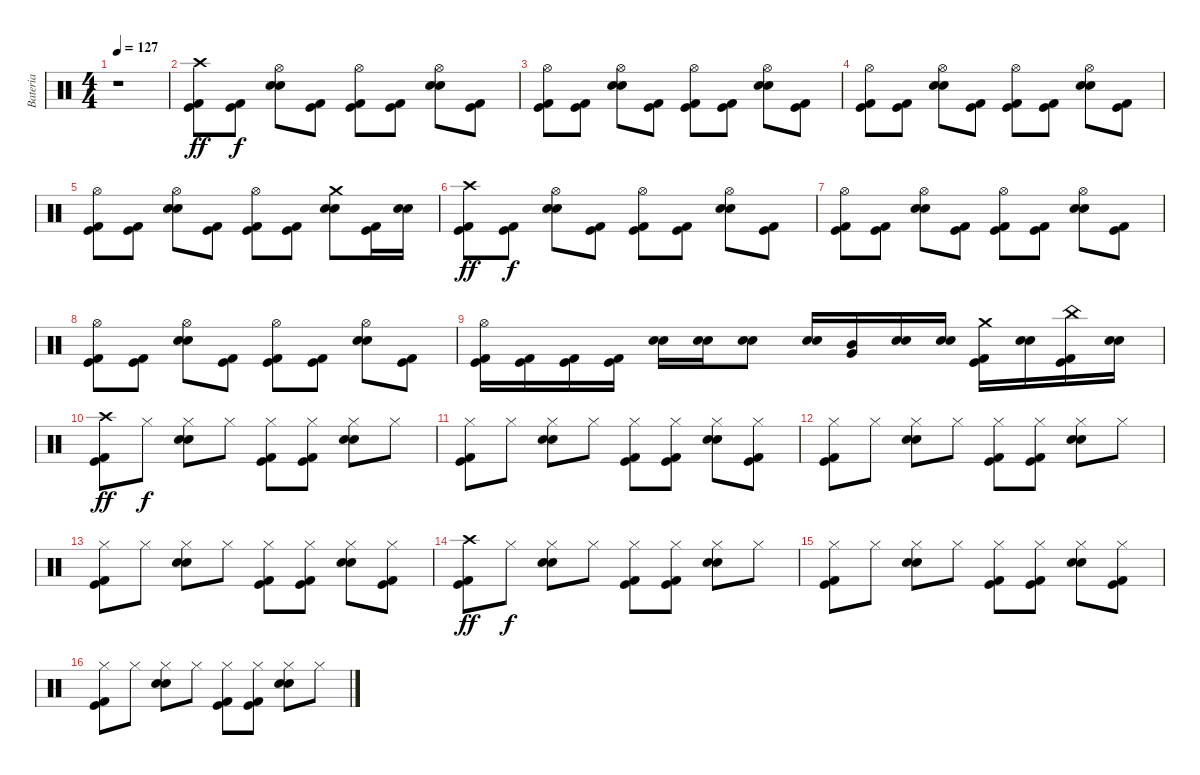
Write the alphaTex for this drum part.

\track ("Bateria" "Bateria") {instrument percussion}
\staff {score}
\articulation defaults
\ts (4 4)
\tempo 127
\clef neutral
\ks c
r.1{dy ff} |
("Crash high (hit)" "Kick (hit) 2" "Kick (hit)").8 ("Kick (hit) 2" "Kick (hit)").8{dy f} ("Hi-Hat (open)" "Electric Snare (hit)" "Snare (hit) 2").8 ("Kick (hit) 2" "Kick (hit)").8 ("Hi-Hat (open)" "Kick (hit) 2" "Kick (hit)").8 ("Kick (hit) 2" "Kick (hit)").8 ("Hi-Hat (open)" "Electric Snare (hit)" "Snare (hit) 2").8 ("Kick (hit) 2" "Kick (hit)").8 |
("Hi-Hat (open)" "Kick (hit) 2" "Kick (hit)").8 ("Kick (hit) 2" "Kick (hit)").8 ("Hi-Hat (open)" "Electric Snare (hit)" "Snare (hit) 2").8 ("Kick (hit) 2" "Kick (hit)").8 ("Hi-Hat (open)" "Kick (hit) 2" "Kick (hit)").8 ("Kick (hit) 2" "Kick (hit)").8 ("Hi-Hat (open)" "Electric Snare (hit)" "Snare (hit) 2").8 ("Kick (hit) 2" "Kick (hit)").8 |
("Hi-Hat (open)" "Kick (hit) 2" "Kick (hit)").8 ("Kick (hit) 2" "Kick (hit)").8 ("Hi-Hat (open)" "Electric Snare (hit)" "Snare (hit) 2").8 ("Kick (hit) 2" "Kick (hit)").8 ("Hi-Hat (open)" "Kick (hit) 2" "Kick (hit)").8 ("Kick (hit) 2" "Kick (hit)").8 ("Hi-Hat (open)" "Electric Snare (hit)" "Snare (hit) 2").8 ("Kick (hit) 2" "Kick (hit)").8 |
("Hi-Hat (open)" "Kick (hit) 2" "Kick (hit)").8 ("Kick (hit) 2" "Kick (hit)").8 ("Hi-Hat (open)" "Electric Snare (hit)" "Snare (hit) 2").8 ("Kick (hit) 2" "Kick (hit)").8 ("Hi-Hat (open)" "Kick (hit) 2" "Kick (hit)").8 ("Kick (hit) 2" "Kick (hit)").8 ("Crash medium (hit)" "Electric Snare (hit)" "Snare (hit) 2").8 ("Kick (hit) 2" "Kick (hit)").16 ("Electric Snare (hit)" "Snare (hit) 2").16 |
("Crash high (hit)" "Kick (hit) 2" "Kick (hit)").8{dy ff} ("Kick (hit) 2" "Kick (hit)").8{dy f} ("Hi-Hat (open)" "Electric Snare (hit)" "Snare (hit) 2").8 ("Kick (hit) 2" "Kick (hit)").8 ("Hi-Hat (open)" "Kick (hit) 2" "Kick (hit)").8 ("Kick (hit) 2" "Kick (hit)").8 ("Hi-Hat (open)" "Electric Snare (hit)" "Snare (hit) 2").8 ("Kick (hit) 2" "Kick (hit)").8 |
("Hi-Hat (open)" "Kick (hit) 2" "Kick (hit)").8 ("Kick (hit) 2" "Kick (hit)").8 ("Hi-Hat (open)" "Electric Snare (hit)" "Snare (hit) 2").8 ("Kick (hit) 2" "Kick (hit)").8 ("Hi-Hat (open)" "Kick (hit) 2" "Kick (hit)").8 ("Kick (hit) 2" "Kick (hit)").8 ("Hi-Hat (open)" "Electric Snare (hit)" "Snare (hit) 2").8 ("Kick (hit) 2" "Kick (hit)").8 |
("Hi-Hat (open)" "Kick (hit) 2" "Kick (hit)").8 ("Kick (hit) 2" "Kick (hit)").8 ("Hi-Hat (open)" "Electric Snare (hit)" "Snare (hit) 2").8 ("Kick (hit) 2" "Kick (hit)").8 ("Hi-Hat (open)" "Kick (hit) 2" "Kick (hit)").8 ("Kick (hit) 2" "Kick (hit)").8 ("Hi-Hat (open)" "Electric Snare (hit)" "Snare (hit) 2").8 ("Kick (hit) 2" "Kick (hit)").8 |
("Hi-Hat (open)" "Kick (hit) 2" "Kick (hit)").16 ("Kick (hit) 2" "Kick (hit)").16 ("Kick (hit) 2" "Kick (hit)").16 ("Kick (hit) 2" "Kick (hit)").16 ("Electric Snare (hit)" "Snare (hit) 2").16 ("Electric Snare (hit)" "Snare (hit) 2").16 ("Electric Snare (hit)" "Snare (hit) 2").8 ("Electric Snare (hit)" "Snare (hit) 2").16 ("Mid Tom (hit)" "Very Low Tom (hit)").16 ("Electric Snare (hit)" "Snare (hit) 2").16 ("Electric Snare (hit)" "Snare (hit) 2").16 ("Crash medium (hit)" "Kick (hit) 2" "Kick (hit)").16 ("Electric Snare (hit)" "Snare (hit) 2").16 ("China (hit)" "Kick (hit) 2" "Kick (hit)").16 ("Electric Snare (hit)" "Snare (hit) 2").16 |
("Crash high (hit)" "Kick (hit) 2" "Kick (hit)").8{dy ff} "Hi-Hat (closed)".8{dy f} ("Hi-Hat (closed)" "Electric Snare (hit)" "Snare (hit) 2").8 "Hi-Hat (closed)".8 ("Hi-Hat (closed)" "Kick (hit) 2" "Kick (hit)").8 ("Hi-Hat (closed)" "Kick (hit) 2" "Kick (hit)").8 ("Hi-Hat (closed)" "Electric Snare (hit)" "Snare (hit) 2").8 "Hi-Hat (closed)".8 |
("Hi-Hat (closed)" "Kick (hit) 2" "Kick (hit)").8 "Hi-Hat (closed)".8 ("Hi-Hat (closed)" "Electric Snare (hit)" "Snare (hit) 2").8 "Hi-Hat (closed)".8 ("Hi-Hat (closed)" "Kick (hit) 2" "Kick (hit)").8 ("Hi-Hat (closed)" "Kick (hit) 2" "Kick (hit)").8 ("Hi-Hat (closed)" "Electric Snare (hit)" "Snare (hit) 2").8 ("Hi-Hat (closed)" "Kick (hit) 2" "Kick (hit)").8 |
("Hi-Hat (closed)" "Kick (hit) 2" "Kick (hit)").8 "Hi-Hat (closed)".8 ("Hi-Hat (closed)" "Electric Snare (hit)" "Snare (hit) 2").8 "Hi-Hat (closed)".8 ("Hi-Hat (closed)" "Kick (hit) 2" "Kick (hit)").8 ("Hi-Hat (closed)" "Kick (hit) 2" "Kick (hit)").8 ("Hi-Hat (closed)" "Electric Snare (hit)" "Snare (hit) 2").8 "Hi-Hat (closed)".8 |
("Hi-Hat (closed)" "Kick (hit) 2" "Kick (hit)").8 "Hi-Hat (closed)".8 ("Hi-Hat (closed)" "Electric Snare (hit)" "Snare (hit) 2").8 "Hi-Hat (closed)".8 ("Hi-Hat (closed)" "Kick (hit) 2" "Kick (hit)").8 ("Hi-Hat (closed)" "Kick (hit) 2" "Kick (hit)").8 ("Hi-Hat (closed)" "Electric Snare (hit)" "Snare (hit) 2").8 ("Hi-Hat (closed)" "Kick (hit) 2" "Kick (hit)").8 |
("Crash high (hit)" "Kick (hit) 2" "Kick (hit)").8{dy ff} "Hi-Hat (closed)".8{dy f} ("Hi-Hat (closed)" "Electric Snare (hit)" "Snare (hit) 2").8 "Hi-Hat (closed)".8 ("Hi-Hat (closed)" "Kick (hit) 2" "Kick (hit)").8 ("Hi-Hat (closed)" "Kick (hit) 2" "Kick (hit)").8 ("Hi-Hat (closed)" "Electric Snare (hit)" "Snare (hit) 2").8 "Hi-Hat (closed)".8 |
("Hi-Hat (closed)" "Kick (hit) 2" "Kick (hit)").8 "Hi-Hat (closed)".8 ("Hi-Hat (closed)" "Electric Snare (hit)" "Snare (hit) 2").8 "Hi-Hat (closed)".8 ("Hi-Hat (closed)" "Kick (hit) 2" "Kick (hit)").8 ("Hi-Hat (closed)" "Kick (hit) 2" "Kick (hit)").8 ("Hi-Hat (closed)" "Electric Snare (hit)" "Snare (hit) 2").8 ("Hi-Hat (closed)" "Kick (hit) 2" "Kick (hit)").8 |
("Hi-Hat (closed)" "Kick (hit) 2" "Kick (hit)").8 "Hi-Hat (closed)".8 ("Hi-Hat (closed)" "Electric Snare (hit)" "Snare (hit) 2").8 "Hi-Hat (closed)".8 ("Hi-Hat (closed)" "Kick (hit) 2" "Kick (hit)").8 ("Hi-Hat (closed)" "Kick (hit) 2" "Kick (hit)").8 ("Hi-Hat (closed)" "Electric Snare (hit)" "Snare (hit) 2").8 "Hi-Hat (closed)".8
